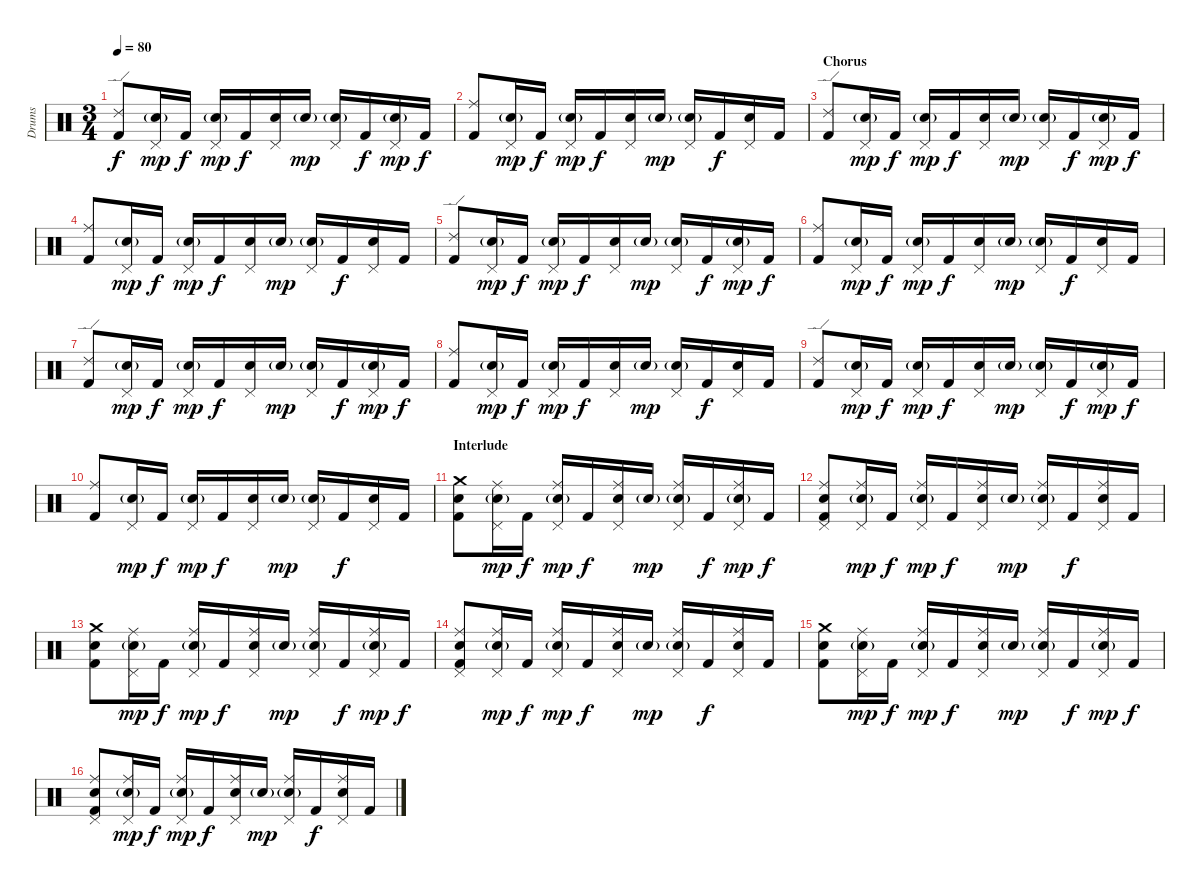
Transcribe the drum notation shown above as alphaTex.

\track ("Drums" "Drums") {instrument percussion}
\staff {score}
\articulation defaults
\ts (3 4)
\tempo 80
\clef neutral
\ks c
("Ride (edge) 2" "Kick (hit) 2").8{dy f} ("Pedal Hi-Hat (hit)" "Snare (hit) 2"{g}).16{dy mp} "Kick (hit) 2".16{dy f} ("Pedal Hi-Hat (hit)" "Snare (hit) 2"{g}).16{dy mp} "Kick (hit) 2".16{dy f} ("Pedal Hi-Hat (hit)" "Snare (hit) 2").16 "Snare (hit) 2"{g}.16{dy mp} ("Pedal Hi-Hat (hit)" "Snare (hit) 2"{g}).16 "Kick (hit) 2".16{dy f} ("Pedal Hi-Hat (hit)" "Snare (hit) 2"{g}).16{dy mp} "Kick (hit) 2".16{dy f} |
("Ride (middle)" "Kick (hit) 2").8 ("Pedal Hi-Hat (hit)" "Snare (hit) 2"{g}).16{dy mp} "Kick (hit) 2".16{dy f} ("Pedal Hi-Hat (hit)" "Snare (hit) 2"{g}).16{dy mp} "Kick (hit) 2".16{dy f} ("Pedal Hi-Hat (hit)" "Snare (hit) 2").16 "Snare (hit) 2"{g}.16{dy mp} ("Pedal Hi-Hat (hit)" "Snare (hit) 2"{g}).16 "Kick (hit) 2".16{dy f} ("Pedal Hi-Hat (hit)" "Snare (hit) 2").16 "Kick (hit) 2".16 |
\section ("" "Chorus")
("Ride (edge) 2" "Kick (hit) 2").8 ("Pedal Hi-Hat (hit)" "Snare (hit) 2"{g}).16{dy mp} "Kick (hit) 2".16{dy f} ("Pedal Hi-Hat (hit)" "Snare (hit) 2"{g}).16{dy mp} "Kick (hit) 2".16{dy f} ("Pedal Hi-Hat (hit)" "Snare (hit) 2").16 "Snare (hit) 2"{g}.16{dy mp} ("Pedal Hi-Hat (hit)" "Snare (hit) 2"{g}).16 "Kick (hit) 2".16{dy f} ("Pedal Hi-Hat (hit)" "Snare (hit) 2"{g}).16{dy mp} "Kick (hit) 2".16{dy f} |
("Ride (middle)" "Kick (hit) 2").8 ("Pedal Hi-Hat (hit)" "Snare (hit) 2"{g}).16{dy mp} "Kick (hit) 2".16{dy f} ("Pedal Hi-Hat (hit)" "Snare (hit) 2"{g}).16{dy mp} "Kick (hit) 2".16{dy f} ("Pedal Hi-Hat (hit)" "Snare (hit) 2").16 "Snare (hit) 2"{g}.16{dy mp} ("Pedal Hi-Hat (hit)" "Snare (hit) 2"{g}).16 "Kick (hit) 2".16{dy f} ("Pedal Hi-Hat (hit)" "Snare (hit) 2").16 "Kick (hit) 2".16 |
("Ride (edge) 2" "Kick (hit) 2").8 ("Pedal Hi-Hat (hit)" "Snare (hit) 2"{g}).16{dy mp} "Kick (hit) 2".16{dy f} ("Pedal Hi-Hat (hit)" "Snare (hit) 2"{g}).16{dy mp} "Kick (hit) 2".16{dy f} ("Pedal Hi-Hat (hit)" "Snare (hit) 2").16 "Snare (hit) 2"{g}.16{dy mp} ("Pedal Hi-Hat (hit)" "Snare (hit) 2"{g}).16 "Kick (hit) 2".16{dy f} ("Pedal Hi-Hat (hit)" "Snare (hit) 2"{g}).16{dy mp} "Kick (hit) 2".16{dy f} |
("Ride (middle)" "Kick (hit) 2").8 ("Pedal Hi-Hat (hit)" "Snare (hit) 2"{g}).16{dy mp} "Kick (hit) 2".16{dy f} ("Pedal Hi-Hat (hit)" "Snare (hit) 2"{g}).16{dy mp} "Kick (hit) 2".16{dy f} ("Pedal Hi-Hat (hit)" "Snare (hit) 2").16 "Snare (hit) 2"{g}.16{dy mp} ("Pedal Hi-Hat (hit)" "Snare (hit) 2"{g}).16 "Kick (hit) 2".16{dy f} ("Pedal Hi-Hat (hit)" "Snare (hit) 2").16 "Kick (hit) 2".16 |
("Ride (edge) 2" "Kick (hit) 2").8 ("Pedal Hi-Hat (hit)" "Snare (hit) 2"{g}).16{dy mp} "Kick (hit) 2".16{dy f} ("Pedal Hi-Hat (hit)" "Snare (hit) 2"{g}).16{dy mp} "Kick (hit) 2".16{dy f} ("Pedal Hi-Hat (hit)" "Snare (hit) 2").16 "Snare (hit) 2"{g}.16{dy mp} ("Pedal Hi-Hat (hit)" "Snare (hit) 2"{g}).16 "Kick (hit) 2".16{dy f} ("Pedal Hi-Hat (hit)" "Snare (hit) 2"{g}).16{dy mp} "Kick (hit) 2".16{dy f} |
("Ride (middle)" "Kick (hit) 2").8 ("Pedal Hi-Hat (hit)" "Snare (hit) 2"{g}).16{dy mp} "Kick (hit) 2".16{dy f} ("Pedal Hi-Hat (hit)" "Snare (hit) 2"{g}).16{dy mp} "Kick (hit) 2".16{dy f} ("Pedal Hi-Hat (hit)" "Snare (hit) 2").16 "Snare (hit) 2"{g}.16{dy mp} ("Pedal Hi-Hat (hit)" "Snare (hit) 2"{g}).16 "Kick (hit) 2".16{dy f} ("Pedal Hi-Hat (hit)" "Snare (hit) 2").16 "Kick (hit) 2".16 |
("Ride (edge) 2" "Kick (hit) 2").8 ("Pedal Hi-Hat (hit)" "Snare (hit) 2"{g}).16{dy mp} "Kick (hit) 2".16{dy f} ("Pedal Hi-Hat (hit)" "Snare (hit) 2"{g}).16{dy mp} "Kick (hit) 2".16{dy f} ("Pedal Hi-Hat (hit)" "Snare (hit) 2").16 "Snare (hit) 2"{g}.16{dy mp} ("Pedal Hi-Hat (hit)" "Snare (hit) 2"{g}).16 "Kick (hit) 2".16{dy f} ("Pedal Hi-Hat (hit)" "Snare (hit) 2"{g}).16{dy mp} "Kick (hit) 2".16{dy f} |
("Ride (middle)" "Kick (hit) 2").8 ("Pedal Hi-Hat (hit)" "Snare (hit) 2"{g}).16{dy mp} "Kick (hit) 2".16{dy f} ("Pedal Hi-Hat (hit)" "Snare (hit) 2"{g}).16{dy mp} "Kick (hit) 2".16{dy f} ("Pedal Hi-Hat (hit)" "Snare (hit) 2").16 "Snare (hit) 2"{g}.16{dy mp} ("Pedal Hi-Hat (hit)" "Snare (hit) 2"{g}).16 "Kick (hit) 2".16{dy f} ("Pedal Hi-Hat (hit)" "Snare (hit) 2").16 "Kick (hit) 2".16 |
\section ("" "Interlude")
("Crash medium (hit)" "Snare (hit) 2" "Kick (hit) 2").8 ("Ride (middle)" "Pedal Hi-Hat (hit)" "Snare (hit) 2"{g}).16{dy mp} "Kick (hit) 2".16{dy f} ("Ride (middle)" "Pedal Hi-Hat (hit)" "Snare (hit) 2"{g}).16{dy mp} "Kick (hit) 2".16{dy f} ("Ride (middle)" "Pedal Hi-Hat (hit)" "Snare (hit) 2").16 "Snare (hit) 2"{g}.16{dy mp} ("Ride (middle)" "Pedal Hi-Hat (hit)" "Snare (hit) 2"{g}).16 "Kick (hit) 2".16{dy f} ("Ride (middle)" "Pedal Hi-Hat (hit)" "Snare (hit) 2"{g}).16{dy mp} "Kick (hit) 2".16{dy f} |
("Ride (middle)" "Pedal Hi-Hat (hit)" "Snare (hit) 2" "Kick (hit) 2").8 ("Ride (middle)" "Pedal Hi-Hat (hit)" "Snare (hit) 2"{g}).16{dy mp} "Kick (hit) 2".16{dy f} ("Ride (middle)" "Pedal Hi-Hat (hit)" "Snare (hit) 2"{g}).16{dy mp} "Kick (hit) 2".16{dy f} ("Ride (middle)" "Pedal Hi-Hat (hit)" "Snare (hit) 2").16 "Snare (hit) 2"{g}.16{dy mp} ("Ride (middle)" "Pedal Hi-Hat (hit)" "Snare (hit) 2"{g}).16 "Kick (hit) 2".16{dy f} ("Ride (middle)" "Pedal Hi-Hat (hit)" "Snare (hit) 2").16 "Kick (hit) 2".16 |
("Crash medium (hit)" "Snare (hit) 2" "Kick (hit) 2").8 ("Ride (middle)" "Pedal Hi-Hat (hit)" "Snare (hit) 2"{g}).16{dy mp} "Kick (hit) 2".16{dy f} ("Ride (middle)" "Pedal Hi-Hat (hit)" "Snare (hit) 2"{g}).16{dy mp} "Kick (hit) 2".16{dy f} ("Ride (middle)" "Pedal Hi-Hat (hit)" "Snare (hit) 2").16 "Snare (hit) 2"{g}.16{dy mp} ("Ride (middle)" "Pedal Hi-Hat (hit)" "Snare (hit) 2"{g}).16 "Kick (hit) 2".16{dy f} ("Ride (middle)" "Pedal Hi-Hat (hit)" "Snare (hit) 2"{g}).16{dy mp} "Kick (hit) 2".16{dy f} |
("Ride (middle)" "Pedal Hi-Hat (hit)" "Snare (hit) 2" "Kick (hit) 2").8 ("Ride (middle)" "Pedal Hi-Hat (hit)" "Snare (hit) 2"{g}).16{dy mp} "Kick (hit) 2".16{dy f} ("Ride (middle)" "Pedal Hi-Hat (hit)" "Snare (hit) 2"{g}).16{dy mp} "Kick (hit) 2".16{dy f} ("Ride (middle)" "Pedal Hi-Hat (hit)" "Snare (hit) 2").16 "Snare (hit) 2"{g}.16{dy mp} ("Ride (middle)" "Pedal Hi-Hat (hit)" "Snare (hit) 2"{g}).16 "Kick (hit) 2".16{dy f} ("Ride (middle)" "Pedal Hi-Hat (hit)" "Snare (hit) 2").16 "Kick (hit) 2".16 |
("Crash medium (hit)" "Snare (hit) 2" "Kick (hit) 2").8 ("Ride (middle)" "Pedal Hi-Hat (hit)" "Snare (hit) 2"{g}).16{dy mp} "Kick (hit) 2".16{dy f} ("Ride (middle)" "Pedal Hi-Hat (hit)" "Snare (hit) 2"{g}).16{dy mp} "Kick (hit) 2".16{dy f} ("Ride (middle)" "Pedal Hi-Hat (hit)" "Snare (hit) 2").16 "Snare (hit) 2"{g}.16{dy mp} ("Ride (middle)" "Pedal Hi-Hat (hit)" "Snare (hit) 2"{g}).16 "Kick (hit) 2".16{dy f} ("Ride (middle)" "Pedal Hi-Hat (hit)" "Snare (hit) 2"{g}).16{dy mp} "Kick (hit) 2".16{dy f} |
("Ride (middle)" "Pedal Hi-Hat (hit)" "Snare (hit) 2" "Kick (hit) 2").8 ("Ride (middle)" "Pedal Hi-Hat (hit)" "Snare (hit) 2"{g}).16{dy mp} "Kick (hit) 2".16{dy f} ("Ride (middle)" "Pedal Hi-Hat (hit)" "Snare (hit) 2"{g}).16{dy mp} "Kick (hit) 2".16{dy f} ("Ride (middle)" "Pedal Hi-Hat (hit)" "Snare (hit) 2").16 "Snare (hit) 2"{g}.16{dy mp} ("Ride (middle)" "Pedal Hi-Hat (hit)" "Snare (hit) 2"{g}).16 "Kick (hit) 2".16{dy f} ("Ride (middle)" "Pedal Hi-Hat (hit)" "Snare (hit) 2").16 "Kick (hit) 2".16
